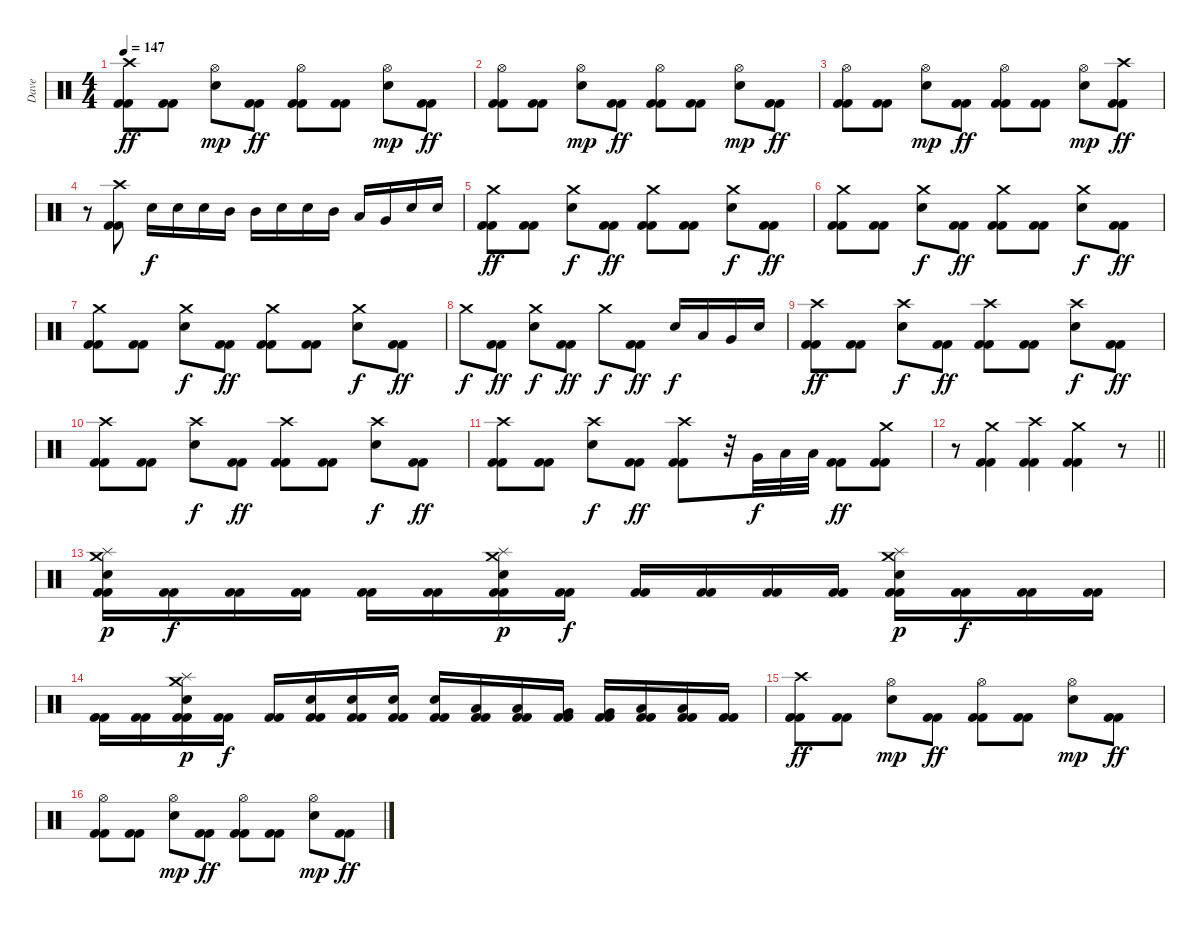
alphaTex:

\track ("Dave" "Dave") {instrument percussion}
\staff {score}
\articulation defaults
\ts (4 4)
\tempo 147
\clef neutral
\ks c
("Crash high (hit)" "Kick (hit) 2" "Kick (hit) 2").8{dy ff} ("Kick (hit) 2" "Kick (hit) 2").8 ("Hi-Hat (open)" "Electric Snare (hit)").8{dy mp} ("Kick (hit) 2" "Kick (hit) 2").8{dy ff} ("Hi-Hat (open)" "Kick (hit) 2" "Kick (hit) 2").8 ("Kick (hit) 2" "Kick (hit) 2").8 ("Hi-Hat (open)" "Electric Snare (hit)").8{dy mp} ("Kick (hit) 2" "Kick (hit) 2").8{dy ff} |
("Hi-Hat (open)" "Kick (hit) 2" "Kick (hit) 2").8 ("Kick (hit) 2" "Kick (hit) 2").8 ("Hi-Hat (open)" "Electric Snare (hit)").8{dy mp} ("Kick (hit) 2" "Kick (hit) 2").8{dy ff} ("Hi-Hat (open)" "Kick (hit) 2" "Kick (hit) 2").8 ("Kick (hit) 2" "Kick (hit) 2").8 ("Hi-Hat (open)" "Electric Snare (hit)").8{dy mp} ("Kick (hit) 2" "Kick (hit) 2").8{dy ff} |
("Hi-Hat (open)" "Kick (hit) 2" "Kick (hit) 2").8 ("Kick (hit) 2" "Kick (hit) 2").8 ("Hi-Hat (open)" "Electric Snare (hit)").8{dy mp} ("Kick (hit) 2" "Kick (hit) 2").8{dy ff} ("Hi-Hat (open)" "Kick (hit) 2" "Kick (hit) 2").8 ("Kick (hit) 2" "Kick (hit) 2").8 ("Hi-Hat (open)" "Electric Snare (hit)").8{dy mp} ("Crash high (hit)" "Kick (hit) 2" "Kick (hit) 2").8{dy ff} |
r.8 ("Crash high (hit)" "Kick (hit) 2" "Kick (hit) 2").8 "Electric Snare (hit)".16{dy f} "Electric Snare (hit)".16 "Electric Snare (hit)".16 "Mid Tom (hit)".16 "Mid Tom (hit)".16 "Electric Snare (hit)".16 "Electric Snare (hit)".16 "Mid Tom (hit)".16 "Low Tom (hit)".16 "Very Low Tom (hit)".16 "Electric Snare (hit)".16 "Electric Snare (hit)".16 |
("Crash medium (hit)" "Kick (hit) 2" "Kick (hit) 2").8{dy ff} ("Kick (hit) 2" "Kick (hit) 2").8 ("Crash medium (hit)" "Electric Snare (hit)").8{dy f} ("Kick (hit) 2" "Kick (hit) 2").8{dy ff} ("Crash medium (hit)" "Kick (hit) 2" "Kick (hit) 2").8 ("Kick (hit) 2" "Kick (hit) 2").8 ("Crash medium (hit)" "Electric Snare (hit)").8{dy f} ("Kick (hit) 2" "Kick (hit) 2").8{dy ff} |
("Crash medium (hit)" "Kick (hit) 2" "Kick (hit) 2").8 ("Kick (hit) 2" "Kick (hit) 2").8 ("Crash medium (hit)" "Electric Snare (hit)").8{dy f} ("Kick (hit) 2" "Kick (hit) 2").8{dy ff} ("Crash medium (hit)" "Kick (hit) 2" "Kick (hit) 2").8 ("Kick (hit) 2" "Kick (hit) 2").8 ("Crash medium (hit)" "Electric Snare (hit)").8{dy f} ("Kick (hit) 2" "Kick (hit) 2").8{dy ff} |
("Crash medium (hit)" "Kick (hit) 2" "Kick (hit) 2").8 ("Kick (hit) 2" "Kick (hit) 2").8 ("Crash medium (hit)" "Electric Snare (hit)").8{dy f} ("Kick (hit) 2" "Kick (hit) 2").8{dy ff} ("Crash medium (hit)" "Kick (hit) 2" "Kick (hit) 2").8 ("Kick (hit) 2" "Kick (hit) 2").8 ("Crash medium (hit)" "Electric Snare (hit)").8{dy f} ("Kick (hit) 2" "Kick (hit) 2").8{dy ff} |
"Crash medium (hit)".8{dy f} ("Kick (hit) 2" "Kick (hit) 2").8{dy ff} ("Crash medium (hit)" "Electric Snare (hit)").8{dy f} ("Kick (hit) 2" "Kick (hit) 2").8{dy ff} "Crash medium (hit)".8{dy f} ("Kick (hit) 2" "Kick (hit) 2").8{dy ff} "Electric Snare (hit)".16{dy f} "Low Tom (hit)".16 "Very Low Tom (hit)".16 "Electric Snare (hit)".16 |
("Crash high (hit)" "Kick (hit) 2" "Kick (hit) 2").8{dy ff} ("Kick (hit) 2" "Kick (hit) 2").8 ("Crash high (hit)" "Electric Snare (hit)").8{dy f} ("Kick (hit) 2" "Kick (hit) 2").8{dy ff} ("Crash high (hit)" "Kick (hit) 2" "Kick (hit) 2").8 ("Kick (hit) 2" "Kick (hit) 2").8 ("Crash high (hit)" "Electric Snare (hit)").8{dy f} ("Kick (hit) 2" "Kick (hit) 2").8{dy ff} |
("Crash high (hit)" "Kick (hit) 2" "Kick (hit) 2").8 ("Kick (hit) 2" "Kick (hit) 2").8 ("Crash high (hit)" "Electric Snare (hit)").8{dy f} ("Kick (hit) 2" "Kick (hit) 2").8{dy ff} ("Crash high (hit)" "Kick (hit) 2" "Kick (hit) 2").8 ("Kick (hit) 2" "Kick (hit) 2").8 ("Crash high (hit)" "Electric Snare (hit)").8{dy f} ("Kick (hit) 2" "Kick (hit) 2").8{dy ff} |
("Crash high (hit)" "Kick (hit) 2" "Kick (hit) 2").8 ("Kick (hit) 2" "Kick (hit) 2").8 ("Crash high (hit)" "Electric Snare (hit)").8{dy f} ("Kick (hit) 2" "Kick (hit) 2").8{dy ff} ("Crash high (hit)" "Kick (hit) 2" "Kick (hit) 2").8 r.32 "Very Low Tom (hit)".32{dy f} "Low Floor Tom (hit)".32 "Low Floor Tom (hit)".32 ("Kick (hit) 2" "Kick (hit) 2").8{dy ff} ("Crash medium (hit)" "Kick (hit) 2" "Kick (hit) 2").8 |
\barLineRight lightlight
r.8 ("Crash medium (hit)" "Kick (hit) 2" "Kick (hit) 2").4 ("Crash high (hit)" "Kick (hit) 2" "Kick (hit) 2").4 ("Crash medium (hit)" "Kick (hit) 2" "Kick (hit) 2").4 r.8 |
("Splash (hit)" "Crash medium (hit)" "Electric Snare (hit)" "Kick (hit) 2" "Kick (hit) 2").16{dy p} ("Kick (hit) 2" "Kick (hit) 2").16{dy f} ("Kick (hit) 2" "Kick (hit) 2").16 ("Kick (hit) 2" "Kick (hit) 2").16 ("Kick (hit) 2" "Kick (hit) 2").16 ("Kick (hit) 2" "Kick (hit) 2").16 ("Splash (hit)" "Crash medium (hit)" "Electric Snare (hit)" "Kick (hit) 2" "Kick (hit) 2").16{dy p} ("Kick (hit) 2" "Kick (hit) 2").16{dy f} ("Kick (hit) 2" "Kick (hit) 2").16 ("Kick (hit) 2" "Kick (hit) 2").16 ("Kick (hit) 2" "Kick (hit) 2").16 ("Kick (hit) 2" "Kick (hit) 2").16 ("Splash (hit)" "Crash medium (hit)" "Electric Snare (hit)" "Kick (hit) 2" "Kick (hit) 2").16{dy p} ("Kick (hit) 2" "Kick (hit) 2").16{dy f} ("Kick (hit) 2" "Kick (hit) 2").16 ("Kick (hit) 2" "Kick (hit) 2").16 |
("Kick (hit) 2" "Kick (hit) 2").16 ("Kick (hit) 2" "Kick (hit) 2").16 ("Splash (hit)" "Crash medium (hit)" "Electric Snare (hit)" "Kick (hit) 2" "Kick (hit) 2").16{dy p} ("Kick (hit) 2" "Kick (hit) 2").16{dy f} ("Kick (hit) 2" "Kick (hit) 2").16 ("Electric Snare (hit)" "Kick (hit) 2" "Kick (hit) 2").16 ("Electric Snare (hit)" "Kick (hit) 2" "Kick (hit) 2").16 ("Electric Snare (hit)" "Kick (hit) 2" "Kick (hit) 2").16 ("Electric Snare (hit)" "Kick (hit) 2" "Kick (hit) 2").16 ("Low Tom (hit)" "Kick (hit) 2" "Kick (hit) 2").16 ("Low Tom (hit)" "Kick (hit) 2" "Kick (hit) 2").16 ("Very Low Tom (hit)" "Kick (hit) 2" "Kick (hit) 2").16 ("Very Low Tom (hit)" "Kick (hit) 2" "Kick (hit) 2").16 ("Low Floor Tom (hit)" "Kick (hit) 2" "Kick (hit) 2").16 ("Low Floor Tom (hit)" "Kick (hit) 2" "Kick (hit) 2").16 ("Kick (hit) 2" "Kick (hit) 2").16 |
("Crash high (hit)" "Kick (hit) 2" "Kick (hit) 2").8{dy ff} ("Kick (hit) 2" "Kick (hit) 2").8 ("Hi-Hat (open)" "Electric Snare (hit)").8{dy mp} ("Kick (hit) 2" "Kick (hit) 2").8{dy ff} ("Hi-Hat (open)" "Kick (hit) 2" "Kick (hit) 2").8 ("Kick (hit) 2" "Kick (hit) 2").8 ("Hi-Hat (open)" "Electric Snare (hit)").8{dy mp} ("Kick (hit) 2" "Kick (hit) 2").8{dy ff} |
("Hi-Hat (open)" "Kick (hit) 2" "Kick (hit) 2").8 ("Kick (hit) 2" "Kick (hit) 2").8 ("Hi-Hat (open)" "Electric Snare (hit)").8{dy mp} ("Kick (hit) 2" "Kick (hit) 2").8{dy ff} ("Hi-Hat (open)" "Kick (hit) 2" "Kick (hit) 2").8 ("Kick (hit) 2" "Kick (hit) 2").8 ("Hi-Hat (open)" "Electric Snare (hit)").8{dy mp} ("Kick (hit) 2" "Kick (hit) 2").8{dy ff}
